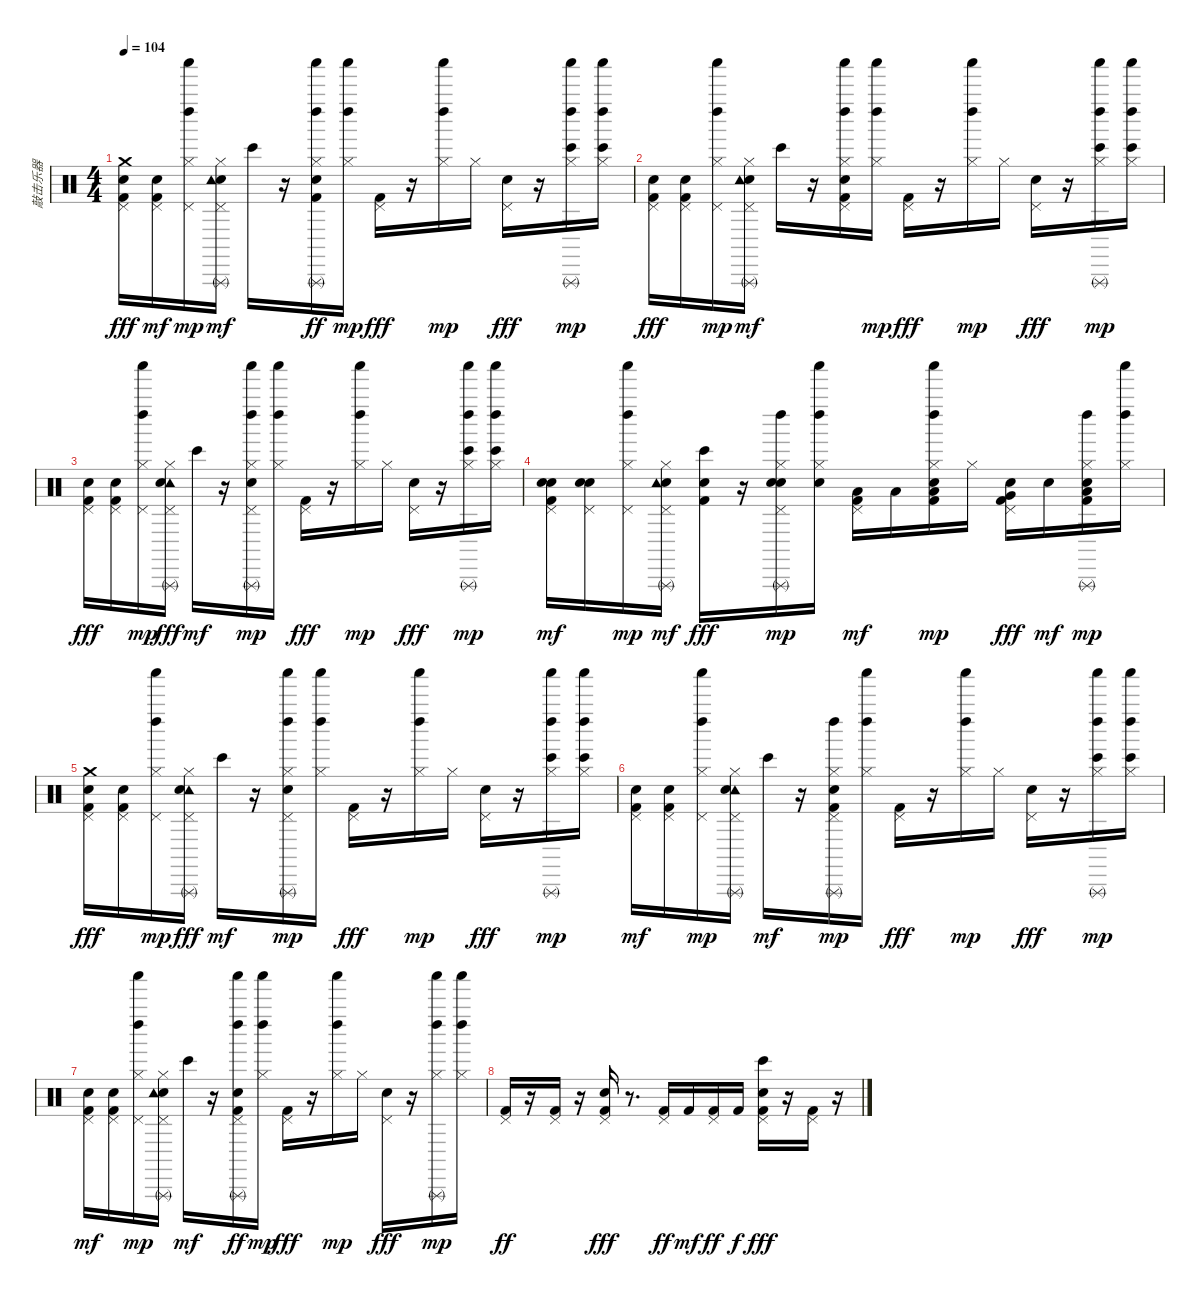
\track ("敲击乐器" "敲击乐器") {instrument percussion}
\staff {score}
\articulation defaults
\ts (4 4)
\tempo 104
\clef neutral
\ks c
("Kick (hit) 2" "Hand Clap (hit)" "Pedal Hi-Hat (hit)" "Crash medium (hit)").16{dy fff} ("Kick (hit) 2" "Hand Clap (hit)" "Pedal Hi-Hat (hit)").16{dy mf} ("Hi-Hat (closed)" "Left Maraca (hit)" "Shaker (hit)" "Pedal Hi-Hat (hit)").16{dy mp} ("Snare (hit) 2" "Hi-Hat (closed)" "Triangle (rnute)" "Tambourine (hit)" "Pedal Hi-Hat (hit)").16{dy mf} "Bongo High (hit)".16 r.16 ("Kick (hit) 2" "Hi-Hat (closed)" "Hand Clap (hit)" "Shaker (hit)" "Left Maraca (hit)" "Triangle (rnute)").16{dy ff} ("Hi-Hat (closed)" "Shaker (hit)" "Left Maraca (hit)").16{dy mp} ("Kick (hit) 2" "Pedal Hi-Hat (hit)").16{dy fff} r.16 ("Hi-Hat (closed)" "Shaker (hit)" "Left Maraca (hit)").16{dy mp} "Hi-Hat (closed)".16 ("Snare (hit) 2" "Pedal Hi-Hat (hit)").16{dy fff} r.16 ("Bongo High (hit)" "Hi-Hat (closed)" "Shaker (hit)" "Left Maraca (hit)" "Triangle (rnute)").16{dy mp} ("Bongo High (hit)" "Hi-Hat (closed)" "Shaker (hit)" "Left Maraca (hit)").16 |
("Hand Clap (hit)" "Kick (hit) 2" "Pedal Hi-Hat (hit)").16{dy fff} ("Hand Clap (hit)" "Kick (hit) 2" "Pedal Hi-Hat (hit)").16 ("Left Maraca (hit)" "Shaker (hit)" "Hi-Hat (closed)" "Pedal Hi-Hat (hit)").16{dy mp} ("Hi-Hat (closed)" "Snare (hit) 2" "Tambourine (hit)" "Pedal Hi-Hat (hit)" "Triangle (rnute)").16{dy mf} "Bongo High (hit)".16 r.16 ("Shaker (hit)" "Left Maraca (hit)" "Hi-Hat (closed)" "Kick (hit) 2" "Pedal Hi-Hat (hit)" "Hand Clap (hit)").16 ("Shaker (hit)" "Left Maraca (hit)" "Hi-Hat (closed)").16{dy mp} ("Kick (hit) 2" "Pedal Hi-Hat (hit)").16{dy fff} r.16 ("Shaker (hit)" "Left Maraca (hit)" "Hi-Hat (closed)").16{dy mp} "Hi-Hat (closed)".16 ("Snare (hit) 2" "Pedal Hi-Hat (hit)").16{dy fff} r.16 ("Bongo High (hit)" "Shaker (hit)" "Left Maraca (hit)" "Hi-Hat (closed)" "Triangle (rnute)").16{dy mp} ("Bongo High (hit)" "Shaker (hit)" "Left Maraca (hit)" "Hi-Hat (closed)").16 |
("Pedal Hi-Hat (hit)" "Hand Clap (hit)" "Kick (hit) 2").16{dy fff} ("Pedal Hi-Hat (hit)" "Hand Clap (hit)" "Kick (hit) 2").16 ("Hi-Hat (closed)" "Pedal Hi-Hat (hit)" "Shaker (hit)" "Left Maraca (hit)").16{dy mp} ("Hi-Hat (closed)" "Pedal Hi-Hat (hit)" "Tambourine (hit)" "Triangle (rnute)" "Snare (hit) 2").16{dy fff} "Bongo High (hit)".16{dy mf} r.16 ("Hi-Hat (closed)" "Pedal Hi-Hat (hit)" "Triangle (rnute)" "Left Maraca (hit)" "Shaker (hit)" "Hand Clap (hit)").16{dy mp} ("Hi-Hat (closed)" "Left Maraca (hit)" "Shaker (hit)").16 ("Pedal Hi-Hat (hit)" "Kick (hit) 2").16{dy fff} r.16 ("Hi-Hat (closed)" "Left Maraca (hit)" "Shaker (hit)").16{dy mp} "Hi-Hat (closed)".16 ("Pedal Hi-Hat (hit)" "Snare (hit) 2").16{dy fff} r.16 ("Bongo High (hit)" "Hi-Hat (closed)" "Triangle (rnute)" "Left Maraca (hit)" "Shaker (hit)").16{dy mp} ("Bongo High (hit)" "Hi-Hat (closed)" "Left Maraca (hit)" "Shaker (hit)").16 |
("Hand Clap (hit)" "Pedal Hi-Hat (hit)" "Kick (hit) 2" "Hand Clap (hit)").16{dy mf} ("Hand Clap (hit)" "Pedal Hi-Hat (hit)" "Hand Clap (hit)").16 ("Hi-Hat (closed)" "Pedal Hi-Hat (hit)" "Shaker (hit)" "Left Maraca (hit)").16{dy mp} ("Hand Clap (hit)" "Hi-Hat (closed)" "Triangle (rnute)" "Pedal Hi-Hat (hit)" "Tambourine (hit)").16{dy mf} ("Snare (hit) 2" "Bongo High (hit)" "Kick (hit) 2").16{dy fff} r.16 ("Hand Clap (hit)" "Hi-Hat (closed)" "Triangle (rnute)" "Hand Clap (hit)" "Pedal Hi-Hat (hit)" "Left Maraca (hit)").16{dy mp} ("Hand Clap (hit)" "Hi-Hat (closed)" "Left Maraca (hit)" "Shaker (hit)").16 ("Kick (hit) 2" "Pedal Hi-Hat (hit)" "Low Tom (hit)").16{dy mf} "Low Tom (hit)".16 ("Hand Clap (hit)" "Low Tom (hit)" "Kick (hit) 2" "Hi-Hat (closed)" "Left Maraca (hit)" "Shaker (hit)").16{dy mp} "Hi-Hat (closed)".16 ("Very Low Tom (hit)" "Snare (hit) 2" "Pedal Hi-Hat (hit)" "Kick (hit) 2").16{dy fff} "Hand Clap (hit)".16{dy mf} ("Hand Clap (hit)" "Low Floor Tom (hit)" "Kick (hit) 2" "Hi-Hat (closed)" "Triangle (rnute)" "Left Maraca (hit)").16{dy mp} ("Hi-Hat (closed)" "Left Maraca (hit)" "Shaker (hit)").16 |
("Crash medium (hit)" "Pedal Hi-Hat (hit)" "Hand Clap (hit)" "Kick (hit) 2").16{dy fff} ("Pedal Hi-Hat (hit)" "Hand Clap (hit)" "Kick (hit) 2").16 ("Pedal Hi-Hat (hit)" "Shaker (hit)" "Left Maraca (hit)" "Hi-Hat (closed)").16{dy mp} ("Pedal Hi-Hat (hit)" "Tambourine (hit)" "Triangle (rnute)" "Hi-Hat (closed)" "Snare (hit) 2").16{dy fff} "Bongo High (hit)".16{dy mf} r.16 ("Pedal Hi-Hat (hit)" "Triangle (rnute)" "Left Maraca (hit)" "Shaker (hit)" "Hand Clap (hit)" "Hi-Hat (closed)").16{dy mp} ("Left Maraca (hit)" "Shaker (hit)" "Hi-Hat (closed)").16 ("Pedal Hi-Hat (hit)" "Kick (hit) 2").16{dy fff} r.16 ("Left Maraca (hit)" "Shaker (hit)" "Hi-Hat (closed)").16{dy mp} "Hi-Hat (closed)".16 ("Pedal Hi-Hat (hit)" "Snare (hit) 2").16{dy fff} r.16 ("Triangle (rnute)" "Left Maraca (hit)" "Shaker (hit)" "Hi-Hat (closed)" "Bongo High (hit)").16{dy mp} ("Left Maraca (hit)" "Shaker (hit)" "Hi-Hat (closed)" "Bongo High (hit)").16 |
("Pedal Hi-Hat (hit)" "Kick (hit) 2" "Hand Clap (hit)").16{dy mf} ("Pedal Hi-Hat (hit)" "Kick (hit) 2" "Hand Clap (hit)").16 ("Pedal Hi-Hat (hit)" "Hi-Hat (closed)" "Shaker (hit)" "Left Maraca (hit)").16{dy mp} ("Triangle (rnute)" "Pedal Hi-Hat (hit)" "Tambourine (hit)" "Snare (hit) 2" "Hi-Hat (closed)").16 "Bongo High (hit)".16{dy mf} r.16 ("Triangle (rnute)" "Hand Clap (hit)" "Pedal Hi-Hat (hit)" "Kick (hit) 2" "Hi-Hat (closed)" "Left Maraca (hit)").16{dy mp} ("Hi-Hat (closed)" "Left Maraca (hit)" "Shaker (hit)").16 ("Pedal Hi-Hat (hit)" "Kick (hit) 2").16{dy fff} r.16 ("Hi-Hat (closed)" "Left Maraca (hit)" "Shaker (hit)").16{dy mp} "Hi-Hat (closed)".16 ("Pedal Hi-Hat (hit)" "Snare (hit) 2").16{dy fff} r.16 ("Triangle (rnute)" "Hi-Hat (closed)" "Left Maraca (hit)" "Shaker (hit)" "Bongo High (hit)").16{dy mp} ("Hi-Hat (closed)" "Left Maraca (hit)" "Shaker (hit)" "Bongo High (hit)").16 |
("Kick (hit) 2" "Hand Clap (hit)" "Pedal Hi-Hat (hit)").16{dy mf} ("Kick (hit) 2" "Hand Clap (hit)" "Pedal Hi-Hat (hit)").16 ("Left Maraca (hit)" "Shaker (hit)" "Pedal Hi-Hat (hit)" "Hi-Hat (closed)").16{dy mp} ("Snare (hit) 2" "Triangle (rnute)" "Tambourine (hit)" "Pedal Hi-Hat (hit)" "Hi-Hat (closed)").16 "Bongo High (hit)".16{dy mf} r.16 ("Kick (hit) 2" "Hand Clap (hit)" "Shaker (hit)" "Left Maraca (hit)" "Triangle (rnute)" "Pedal Hi-Hat (hit)").16{dy ff} ("Shaker (hit)" "Left Maraca (hit)" "Hi-Hat (closed)").16{dy mp} ("Kick (hit) 2" "Pedal Hi-Hat (hit)").16{dy fff} r.16 ("Shaker (hit)" "Left Maraca (hit)" "Hi-Hat (closed)").16{dy mp} "Hi-Hat (closed)".16 ("Snare (hit) 2" "Pedal Hi-Hat (hit)").16{dy fff} r.16 ("Shaker (hit)" "Left Maraca (hit)" "Triangle (rnute)" "Hi-Hat (closed)").16{dy mp} ("Shaker (hit)" "Left Maraca (hit)" "Hi-Hat (closed)").16 |
("Pedal Hi-Hat (hit)" "Kick (hit) 2").16{dy ff} r.16 ("Kick (hit) 2" "Pedal Hi-Hat (hit)").16 r.16 ("Pedal Hi-Hat (hit)" "Kick (hit) 2" "Snare (hit) 2").16{dy fff} r.8{d} ("Pedal Hi-Hat (hit)" "Kick (hit) 2").16{dy ff} "Kick (hit) 2".16{dy mf} ("Pedal Hi-Hat (hit)" "Kick (hit) 2").16{dy ff} "Kick (hit) 2".16{dy f} ("Pedal Hi-Hat (hit)" "Snare (hit) 2" "Kick (hit) 2" "Bongo High (hit)").16{dy fff} r.16 ("Kick (hit) 2" "Pedal Hi-Hat (hit)").16 r.16
